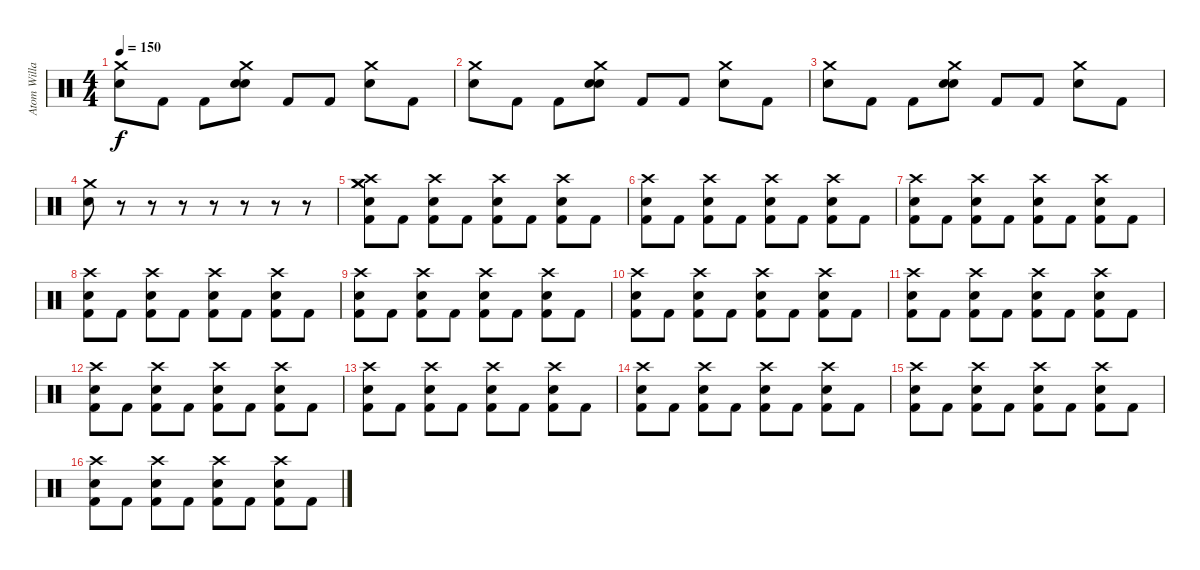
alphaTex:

\track ("Atom Willard Drums" "Atom Willa") {instrument percussion}
\staff {score}
\articulation defaults
\ts (4 4)
\tempo 150
\clef neutral
\ks c
("Crash medium (hit)" "Electric Snare (hit)").8{dy f} "Kick (hit) 2".8 "Kick (hit) 2".8 ("Crash medium (hit)" "Electric Snare (hit)" "Snare (hit)").8 "Kick (hit) 2".8 "Kick (hit) 2".8 ("Crash medium (hit)" "Electric Snare (hit)").8 "Kick (hit) 2".8 |
("Crash medium (hit)" "Electric Snare (hit)").8 "Kick (hit) 2".8 "Kick (hit) 2".8 ("Crash medium (hit)" "Electric Snare (hit)" "Snare (hit)").8 "Kick (hit) 2".8 "Kick (hit) 2".8 ("Crash medium (hit)" "Electric Snare (hit)").8 "Kick (hit) 2".8 |
("Crash medium (hit)" "Electric Snare (hit)").8 "Kick (hit) 2".8 "Kick (hit) 2".8 ("Crash medium (hit)" "Electric Snare (hit)" "Snare (hit)").8 "Kick (hit) 2".8 "Kick (hit) 2".8 ("Crash medium (hit)" "Electric Snare (hit)").8 "Kick (hit) 2".8 |
("Crash medium (hit)" "Electric Snare (hit)").8 r.8 r.8 r.8 r.8 r.8 r.8 r.8 |
("Crash medium (hit)" "Crash high (hit)" "Crash medium (hit)" "Electric Snare (hit)" "Kick (hit) 2").8 "Kick (hit) 2".8 ("Crash high (hit)" "Electric Snare (hit)" "Kick (hit) 2").8 "Kick (hit) 2".8 ("Crash high (hit)" "Electric Snare (hit)" "Kick (hit) 2").8 "Kick (hit) 2".8 ("Crash high (hit)" "Electric Snare (hit)" "Kick (hit) 2").8 "Kick (hit) 2".8 |
("Crash high (hit)" "Electric Snare (hit)" "Kick (hit) 2").8 "Kick (hit) 2".8 ("Crash high (hit)" "Electric Snare (hit)" "Kick (hit) 2").8 "Kick (hit) 2".8 ("Crash high (hit)" "Electric Snare (hit)" "Kick (hit) 2").8 "Kick (hit) 2".8 ("Crash high (hit)" "Electric Snare (hit)" "Kick (hit) 2").8 "Kick (hit) 2".8 |
("Crash high (hit)" "Electric Snare (hit)" "Kick (hit) 2").8 "Kick (hit) 2".8 ("Crash high (hit)" "Electric Snare (hit)" "Kick (hit) 2").8 "Kick (hit) 2".8 ("Crash high (hit)" "Electric Snare (hit)" "Kick (hit) 2").8 "Kick (hit) 2".8 ("Crash high (hit)" "Electric Snare (hit)" "Kick (hit) 2").8 "Kick (hit) 2".8 |
("Crash high (hit)" "Electric Snare (hit)" "Kick (hit) 2").8 "Kick (hit) 2".8 ("Crash high (hit)" "Electric Snare (hit)" "Kick (hit) 2").8 "Kick (hit) 2".8 ("Crash high (hit)" "Electric Snare (hit)" "Kick (hit) 2").8 "Kick (hit) 2".8 ("Crash high (hit)" "Electric Snare (hit)" "Kick (hit) 2").8 "Kick (hit) 2".8 |
("Crash high (hit)" "Electric Snare (hit)" "Kick (hit) 2").8 "Kick (hit) 2".8 ("Crash high (hit)" "Electric Snare (hit)" "Kick (hit) 2").8 "Kick (hit) 2".8 ("Crash high (hit)" "Electric Snare (hit)" "Kick (hit) 2").8 "Kick (hit) 2".8 ("Crash high (hit)" "Electric Snare (hit)" "Kick (hit) 2").8 "Kick (hit) 2".8 |
("Crash high (hit)" "Electric Snare (hit)" "Kick (hit) 2").8 "Kick (hit) 2".8 ("Crash high (hit)" "Electric Snare (hit)" "Kick (hit) 2").8 "Kick (hit) 2".8 ("Crash high (hit)" "Electric Snare (hit)" "Kick (hit) 2").8 "Kick (hit) 2".8 ("Crash high (hit)" "Electric Snare (hit)" "Kick (hit) 2").8 "Kick (hit) 2".8 |
("Crash high (hit)" "Electric Snare (hit)" "Kick (hit) 2").8 "Kick (hit) 2".8 ("Crash high (hit)" "Electric Snare (hit)" "Kick (hit) 2").8 "Kick (hit) 2".8 ("Crash high (hit)" "Electric Snare (hit)" "Kick (hit) 2").8 "Kick (hit) 2".8 ("Crash high (hit)" "Electric Snare (hit)" "Kick (hit) 2").8 "Kick (hit) 2".8 |
("Crash high (hit)" "Electric Snare (hit)" "Kick (hit) 2").8 "Kick (hit) 2".8 ("Crash high (hit)" "Electric Snare (hit)" "Kick (hit) 2").8 "Kick (hit) 2".8 ("Crash high (hit)" "Electric Snare (hit)" "Kick (hit) 2").8 "Kick (hit) 2".8 ("Crash high (hit)" "Electric Snare (hit)" "Kick (hit) 2").8 "Kick (hit) 2".8 |
("Crash high (hit)" "Electric Snare (hit)" "Kick (hit) 2").8 "Kick (hit) 2".8 ("Crash high (hit)" "Electric Snare (hit)" "Kick (hit) 2").8 "Kick (hit) 2".8 ("Crash high (hit)" "Electric Snare (hit)" "Kick (hit) 2").8 "Kick (hit) 2".8 ("Crash high (hit)" "Electric Snare (hit)" "Kick (hit) 2").8 "Kick (hit) 2".8 |
("Crash high (hit)" "Electric Snare (hit)" "Kick (hit) 2").8 "Kick (hit) 2".8 ("Crash high (hit)" "Electric Snare (hit)" "Kick (hit) 2").8 "Kick (hit) 2".8 ("Crash high (hit)" "Electric Snare (hit)" "Kick (hit) 2").8 "Kick (hit) 2".8 ("Crash high (hit)" "Electric Snare (hit)" "Kick (hit) 2").8 "Kick (hit) 2".8 |
("Crash high (hit)" "Electric Snare (hit)" "Kick (hit) 2").8 "Kick (hit) 2".8 ("Crash high (hit)" "Electric Snare (hit)" "Kick (hit) 2").8 "Kick (hit) 2".8 ("Crash high (hit)" "Electric Snare (hit)" "Kick (hit) 2").8 "Kick (hit) 2".8 ("Crash high (hit)" "Electric Snare (hit)" "Kick (hit) 2").8 "Kick (hit) 2".8 |
("Crash high (hit)" "Electric Snare (hit)" "Kick (hit) 2").8 "Kick (hit) 2".8 ("Crash high (hit)" "Electric Snare (hit)" "Kick (hit) 2").8 "Kick (hit) 2".8 ("Crash high (hit)" "Electric Snare (hit)" "Kick (hit) 2").8 "Kick (hit) 2".8 ("Crash high (hit)" "Electric Snare (hit)" "Kick (hit) 2").8 "Kick (hit) 2".8
